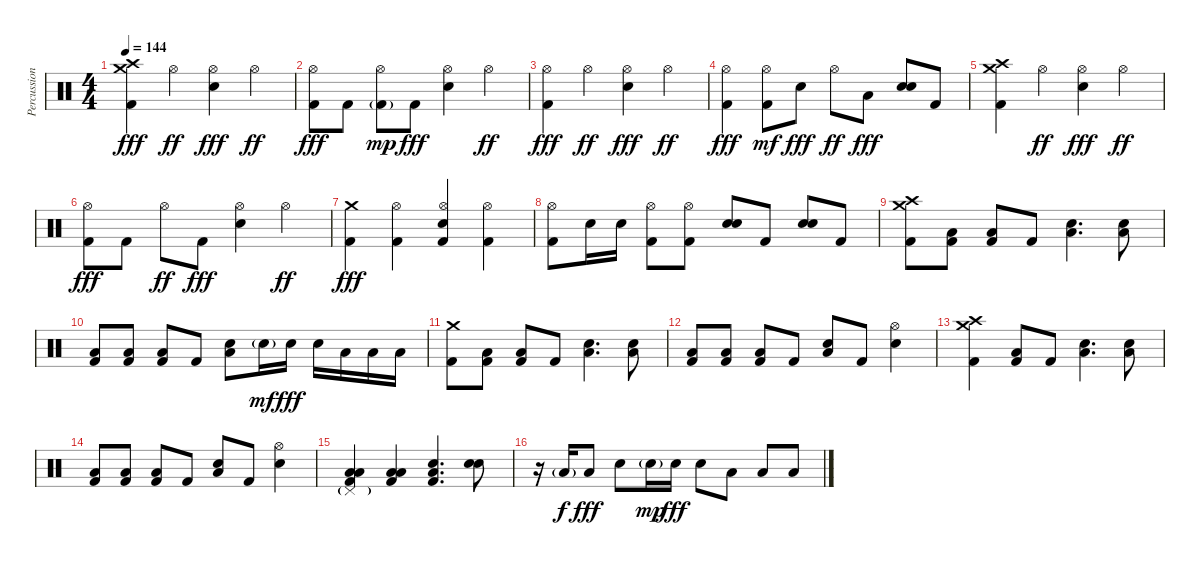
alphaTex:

\track ("Percussion" "Percussion") {instrument percussion}
\staff {score}
\articulation defaults
\ts (4 4)
\tempo 144
\clef neutral
\ks c
("Crash high (hit)" "Crash medium (hit)" "Kick (hit) 2").4{dy fff} "Hi-Hat (open)".4{dy ff} ("Hi-Hat (open)" "Electric Snare (hit)").4{dy fff} "Hi-Hat (open)".4{dy ff} |
("Hi-Hat (open)" "Kick (hit) 2").8{dy fff} "Kick (hit) 2".8 ("Hi-Hat (open)" "Kick (hit) 2"{g}).8{dy mp} "Kick (hit) 2".8{dy fff} ("Hi-Hat (open)" "Electric Snare (hit)").4 "Hi-Hat (open)".4{dy ff} |
("Hi-Hat (open)" "Kick (hit) 2").4{dy fff} "Hi-Hat (open)".4{dy ff} ("Hi-Hat (open)" "Electric Snare (hit)").4{dy fff} "Hi-Hat (open)".4{dy ff} |
("Hi-Hat (open)" "Kick (hit) 2").4{dy fff} ("Hi-Hat (open)" "Kick (hit) 2").8{dy mf} "Electric Snare (hit)".8{dy fff} "Hi-Hat (open)".8{dy ff} "Low Tom (hit)".8{dy fff} ("Electric Snare (hit)" "Electric Snare (hit)").8{bd 480} "Kick (hit) 2".8 |
("Crash high (hit)" "Crash medium (hit)" "Kick (hit) 2").4 "Hi-Hat (open)".4{dy ff} ("Hi-Hat (open)" "Electric Snare (hit)").4{dy fff} "Hi-Hat (open)".4{dy ff} |
("Hi-Hat (open)" "Kick (hit) 2").8{dy fff} "Kick (hit) 2".8 "Hi-Hat (open)".8{dy ff} "Kick (hit) 2".8{dy fff} ("Hi-Hat (open)" "Electric Snare (hit)").4 "Hi-Hat (open)".4{dy ff} |
("Crash medium (hit)" "Kick (hit) 2").4{dy fff} ("Hi-Hat (open)" "Kick (hit) 2").4 ("Hi-Hat (open)" "Kick (hit) 2" "Electric Snare (hit)").4 ("Hi-Hat (open)" "Kick (hit) 2").4 |
("Hi-Hat (open)" "Kick (hit) 2").8 "Electric Snare (hit)".16 "Electric Snare (hit)".16 ("Hi-Hat (open)" "Kick (hit) 2").8 ("Hi-Hat (open)" "Kick (hit) 2").8 ("Electric Snare (hit)" "Electric Snare (hit)").8{bd 480} "Kick (hit) 2".8 ("Electric Snare (hit)" "Electric Snare (hit)").8{bd 480} "Kick (hit) 2".8 |
("Crash high (hit)" "Crash medium (hit)" "Kick (hit) 2").8 ("Kick (hit) 2" "Low Tom (hit)").8 ("Kick (hit) 2" "Low Floor Tom (hit)").8 "Kick (hit) 2".8 ("Electric Snare (hit)" "Low Floor Tom (hit)").4{d} ("Electric Snare (hit)" "Low Floor Tom (hit)").8 |
("Kick (hit) 2" "Low Floor Tom (hit)").8 ("Kick (hit) 2" "Low Tom (hit)").8 ("Kick (hit) 2" "Low Floor Tom (hit)").8 "Kick (hit) 2".8 ("Electric Snare (hit)" "Low Floor Tom (hit)").8 "Electric Snare (hit)"{g}.16{dy mf} "Electric Snare (hit)".16{dy fff} "Electric Snare (hit)".16 "Low Tom (hit)".16 "Low Floor Tom (hit)".16 "Low Floor Tom (hit)".16 |
("Crash medium (hit)" "Kick (hit) 2").8 ("Kick (hit) 2" "Low Tom (hit)").8 ("Kick (hit) 2" "Low Floor Tom (hit)").8 "Kick (hit) 2".8 ("Electric Snare (hit)" "Low Floor Tom (hit)").4{d} ("Electric Snare (hit)" "Low Floor Tom (hit)").8 |
("Kick (hit) 2" "Low Floor Tom (hit)").8 ("Kick (hit) 2" "Low Floor Tom (hit)").8 ("Kick (hit) 2" "Low Floor Tom (hit)").8 "Kick (hit) 2".8 ("Electric Snare (hit)" "Low Floor Tom (hit)").8 "Kick (hit) 2".8 ("Hi-Hat (open)" "Electric Snare (hit)").4 |
("Crash high (hit)" "Crash medium (hit)" "Kick (hit) 2").4 ("Kick (hit) 2" "Low Floor Tom (hit)").8 "Kick (hit) 2".8 ("Electric Snare (hit)" "Low Floor Tom (hit)").4{d} ("Electric Snare (hit)" "Low Floor Tom (hit)").8 |
("Kick (hit) 2" "Low Floor Tom (hit)").8 ("Kick (hit) 2" "Low Floor Tom (hit)").8 ("Kick (hit) 2" "Low Floor Tom (hit)").8 "Kick (hit) 2".8 ("Electric Snare (hit)" "Low Floor Tom (hit)").8 "Kick (hit) 2".8 ("Hi-Hat (open)" "Electric Snare (hit)").4 |
("Pedal Hi-Hat (hit)"{g} "Kick (hit) 2" "Low Tom (hit)" "Low Floor Tom (hit)").4 ("Kick (hit) 2" "Low Tom (hit)" "Low Floor Tom (hit)").4 ("Kick (hit) 2" "Electric Snare (hit)" "Low Floor Tom (hit)").4{d} ("Electric Snare (hit)" "Electric Snare (hit)").8{bd 480} |
r.16 "Low Tom (hit)"{g}.16{dy f} "Low Tom (hit)".8{dy fff} "Electric Snare (hit)".8 "Electric Snare (hit)"{g}.16{dy mp} "Electric Snare (hit)".16{dy fff} "Electric Snare (hit)".8 "Low Tom (hit)".8 "Low Floor Tom (hit)".8 "Low Floor Tom (hit)".8
